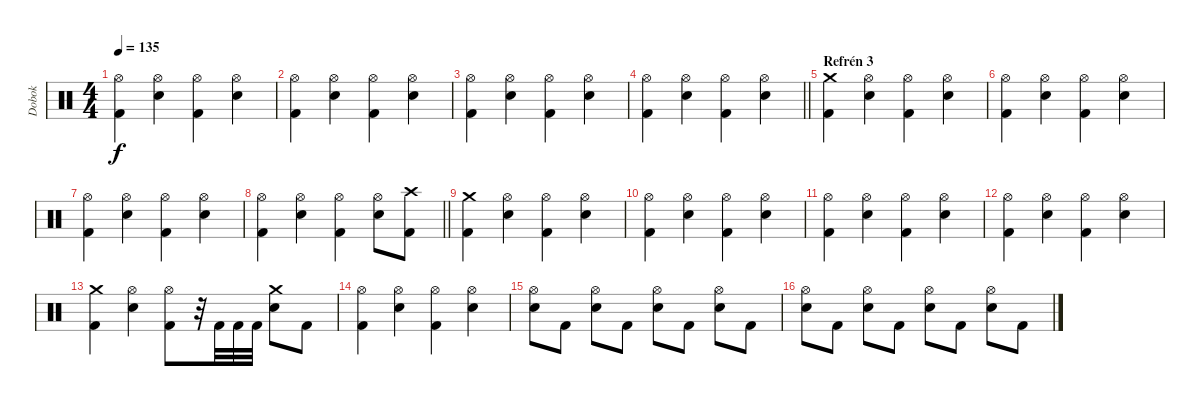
\track ("Dobok" "Dobok") {instrument percussion}
\staff {score}
\articulation defaults
\ts (4 4)
\tempo 135
\clef neutral
\ks c
("Hi-Hat (open)" "Kick (hit) 2").4{dy f} ("Hi-Hat (open)" "Electric Snare (hit)").4 ("Hi-Hat (open)" "Kick (hit) 2").4 ("Hi-Hat (open)" "Electric Snare (hit)").4 |
("Hi-Hat (open)" "Kick (hit) 2").4 ("Hi-Hat (open)" "Electric Snare (hit)").4 ("Hi-Hat (open)" "Kick (hit) 2").4 ("Hi-Hat (open)" "Electric Snare (hit)").4 |
("Hi-Hat (open)" "Kick (hit) 2").4 ("Hi-Hat (open)" "Electric Snare (hit)").4 ("Hi-Hat (open)" "Kick (hit) 2").4 ("Hi-Hat (open)" "Electric Snare (hit)").4 |
\barLineRight lightlight
("Hi-Hat (open)" "Kick (hit) 2").4 ("Hi-Hat (open)" "Electric Snare (hit)").4 ("Hi-Hat (open)" "Kick (hit) 2").4 ("Hi-Hat (open)" "Electric Snare (hit)").4 |
\section ("" "Refrén 3")
("Crash medium (hit)" "Kick (hit) 2").4 ("Hi-Hat (open)" "Electric Snare (hit)").4 ("Hi-Hat (open)" "Kick (hit) 2").4 ("Hi-Hat (open)" "Electric Snare (hit)").4 |
("Hi-Hat (open)" "Kick (hit) 2").4 ("Hi-Hat (open)" "Electric Snare (hit)").4 ("Hi-Hat (open)" "Kick (hit) 2").4 ("Hi-Hat (open)" "Electric Snare (hit)").4 |
("Hi-Hat (open)" "Kick (hit) 2").4 ("Hi-Hat (open)" "Electric Snare (hit)").4 ("Hi-Hat (open)" "Kick (hit) 2").4 ("Hi-Hat (open)" "Electric Snare (hit)").4 |
\barLineRight lightlight
("Hi-Hat (open)" "Kick (hit) 2").4 ("Hi-Hat (open)" "Electric Snare (hit)").4 ("Hi-Hat (open)" "Kick (hit) 2").4 ("Hi-Hat (open)" "Electric Snare (hit)").8 ("Crash high (hit)" "Kick (hit) 2").8 |
("Crash medium (hit)" "Kick (hit) 2").4 ("Hi-Hat (open)" "Electric Snare (hit)").4 ("Hi-Hat (open)" "Kick (hit) 2").4 ("Hi-Hat (open)" "Electric Snare (hit)").4 |
("Hi-Hat (open)" "Kick (hit) 2").4 ("Hi-Hat (open)" "Electric Snare (hit)").4 ("Hi-Hat (open)" "Kick (hit) 2").4 ("Hi-Hat (open)" "Electric Snare (hit)").4 |
("Hi-Hat (open)" "Kick (hit) 2").4 ("Hi-Hat (open)" "Electric Snare (hit)").4 ("Hi-Hat (open)" "Kick (hit) 2").4 ("Hi-Hat (open)" "Electric Snare (hit)").4 |
("Hi-Hat (open)" "Kick (hit) 2").4 ("Hi-Hat (open)" "Electric Snare (hit)").4 ("Hi-Hat (open)" "Kick (hit) 2").4 ("Hi-Hat (open)" "Electric Snare (hit)").4 |
("Crash medium (hit)" "Kick (hit) 2").4 ("Hi-Hat (open)" "Electric Snare (hit)").4 ("Hi-Hat (open)" "Kick (hit) 2").8 r.32 "Kick (hit) 2".32 "Kick (hit) 2".32 "Kick (hit) 2".32 ("Crash medium (hit)" "Electric Snare (hit)").8 "Kick (hit) 2".8 |
("Hi-Hat (open)" "Kick (hit) 2").4 ("Hi-Hat (open)" "Electric Snare (hit)").4 ("Hi-Hat (open)" "Kick (hit) 2").4 ("Hi-Hat (open)" "Electric Snare (hit)").4 |
("Hi-Hat (open)" "Electric Snare (hit)").8 "Kick (hit) 2".8 ("Hi-Hat (open)" "Electric Snare (hit)").8 "Kick (hit) 2".8 ("Hi-Hat (open)" "Electric Snare (hit)").8 "Kick (hit) 2".8 ("Hi-Hat (open)" "Electric Snare (hit)").8 "Kick (hit) 2".8 |
("Hi-Hat (open)" "Electric Snare (hit)").8 "Kick (hit) 2".8 ("Hi-Hat (open)" "Electric Snare (hit)").8 "Kick (hit) 2".8 ("Hi-Hat (open)" "Electric Snare (hit)").8 "Kick (hit) 2".8 ("Hi-Hat (open)" "Electric Snare (hit)").8 "Kick (hit) 2".8
